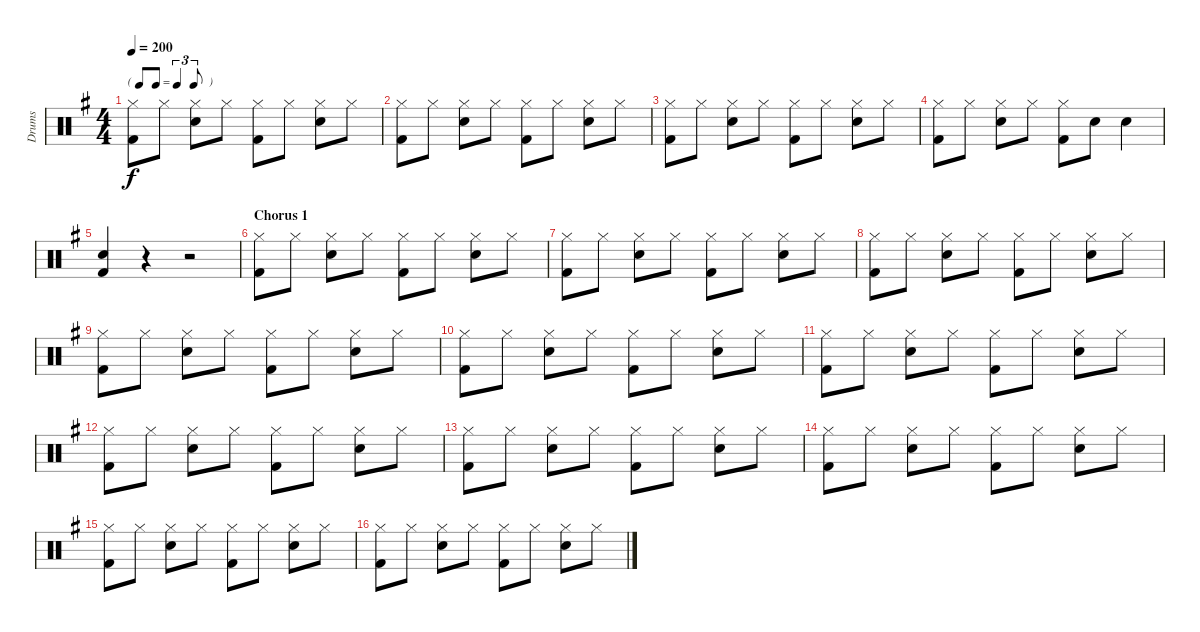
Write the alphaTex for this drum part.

\track ("Drums" "Drums") {instrument percussion}
\staff {score}
\articulation defaults
\ts (4 4)
\tf triplet8th
\tempo 200
\clef neutral
\ks g
("Hi-Hat (closed)" "Kick (hit) 2").8{dy f} "Hi-Hat (closed)".8 ("Hi-Hat (closed)" "Snare (hit) 2").8 "Hi-Hat (closed)".8 ("Hi-Hat (closed)" "Kick (hit) 2").8 "Hi-Hat (closed)".8 ("Hi-Hat (closed)" "Snare (hit) 2").8 "Hi-Hat (closed)".8 |
("Hi-Hat (closed)" "Kick (hit) 2").8 "Hi-Hat (closed)".8 ("Hi-Hat (closed)" "Snare (hit) 2").8 "Hi-Hat (closed)".8 ("Hi-Hat (closed)" "Kick (hit) 2").8 "Hi-Hat (closed)".8 ("Hi-Hat (closed)" "Snare (hit) 2").8 "Hi-Hat (closed)".8 |
("Hi-Hat (closed)" "Kick (hit) 2").8 "Hi-Hat (closed)".8 ("Hi-Hat (closed)" "Snare (hit) 2").8 "Hi-Hat (closed)".8 ("Hi-Hat (closed)" "Kick (hit) 2").8 "Hi-Hat (closed)".8 ("Hi-Hat (closed)" "Snare (hit) 2").8 "Hi-Hat (closed)".8 |
("Hi-Hat (closed)" "Kick (hit) 2").8 "Hi-Hat (closed)".8 ("Hi-Hat (closed)" "Snare (hit) 2").8 "Hi-Hat (closed)".8 ("Hi-Hat (closed)" "Kick (hit) 2").8 "Snare (hit) 2".8 "Snare (hit) 2".4 |
("Snare (hit) 2" "Kick (hit) 2").4 r.4 r.2 |
\section ("" "Chorus 1")
("Hi-Hat (closed)" "Kick (hit) 2").8 "Hi-Hat (closed)".8 ("Hi-Hat (closed)" "Snare (hit) 2").8 "Hi-Hat (closed)".8 ("Hi-Hat (closed)" "Kick (hit) 2").8 "Hi-Hat (closed)".8 ("Hi-Hat (closed)" "Snare (hit) 2").8 "Hi-Hat (closed)".8 |
("Hi-Hat (closed)" "Kick (hit) 2").8 "Hi-Hat (closed)".8 ("Hi-Hat (closed)" "Snare (hit) 2").8 "Hi-Hat (closed)".8 ("Hi-Hat (closed)" "Kick (hit) 2").8 "Hi-Hat (closed)".8 ("Hi-Hat (closed)" "Snare (hit) 2").8 "Hi-Hat (closed)".8 |
("Hi-Hat (closed)" "Kick (hit) 2").8 "Hi-Hat (closed)".8 ("Hi-Hat (closed)" "Snare (hit) 2").8 "Hi-Hat (closed)".8 ("Hi-Hat (closed)" "Kick (hit) 2").8 "Hi-Hat (closed)".8 ("Hi-Hat (closed)" "Snare (hit) 2").8 "Hi-Hat (closed)".8 |
("Hi-Hat (closed)" "Kick (hit) 2").8 "Hi-Hat (closed)".8 ("Hi-Hat (closed)" "Snare (hit) 2").8 "Hi-Hat (closed)".8 ("Hi-Hat (closed)" "Kick (hit) 2").8 "Hi-Hat (closed)".8 ("Hi-Hat (closed)" "Snare (hit) 2").8 "Hi-Hat (closed)".8 |
("Hi-Hat (closed)" "Kick (hit) 2").8 "Hi-Hat (closed)".8 ("Hi-Hat (closed)" "Snare (hit) 2").8 "Hi-Hat (closed)".8 ("Hi-Hat (closed)" "Kick (hit) 2").8 "Hi-Hat (closed)".8 ("Hi-Hat (closed)" "Snare (hit) 2").8 "Hi-Hat (closed)".8 |
("Hi-Hat (closed)" "Kick (hit) 2").8 "Hi-Hat (closed)".8 ("Hi-Hat (closed)" "Snare (hit) 2").8 "Hi-Hat (closed)".8 ("Hi-Hat (closed)" "Kick (hit) 2").8 "Hi-Hat (closed)".8 ("Hi-Hat (closed)" "Snare (hit) 2").8 "Hi-Hat (closed)".8 |
("Hi-Hat (closed)" "Kick (hit) 2").8 "Hi-Hat (closed)".8 ("Hi-Hat (closed)" "Snare (hit) 2").8 "Hi-Hat (closed)".8 ("Hi-Hat (closed)" "Kick (hit) 2").8 "Hi-Hat (closed)".8 ("Hi-Hat (closed)" "Snare (hit) 2").8 "Hi-Hat (closed)".8 |
("Hi-Hat (closed)" "Kick (hit) 2").8 "Hi-Hat (closed)".8 ("Hi-Hat (closed)" "Snare (hit) 2").8 "Hi-Hat (closed)".8 ("Hi-Hat (closed)" "Kick (hit) 2").8 "Hi-Hat (closed)".8 ("Hi-Hat (closed)" "Snare (hit) 2").8 "Hi-Hat (closed)".8 |
("Hi-Hat (closed)" "Kick (hit) 2").8 "Hi-Hat (closed)".8 ("Hi-Hat (closed)" "Snare (hit) 2").8 "Hi-Hat (closed)".8 ("Hi-Hat (closed)" "Kick (hit) 2").8 "Hi-Hat (closed)".8 ("Hi-Hat (closed)" "Snare (hit) 2").8 "Hi-Hat (closed)".8 |
("Hi-Hat (closed)" "Kick (hit) 2").8 "Hi-Hat (closed)".8 ("Hi-Hat (closed)" "Snare (hit) 2").8 "Hi-Hat (closed)".8 ("Hi-Hat (closed)" "Kick (hit) 2").8 "Hi-Hat (closed)".8 ("Hi-Hat (closed)" "Snare (hit) 2").8 "Hi-Hat (closed)".8 |
("Hi-Hat (closed)" "Kick (hit) 2").8 "Hi-Hat (closed)".8 ("Hi-Hat (closed)" "Snare (hit) 2").8 "Hi-Hat (closed)".8 ("Hi-Hat (closed)" "Kick (hit) 2").8 "Hi-Hat (closed)".8 ("Hi-Hat (closed)" "Snare (hit) 2").8 "Hi-Hat (closed)".8
